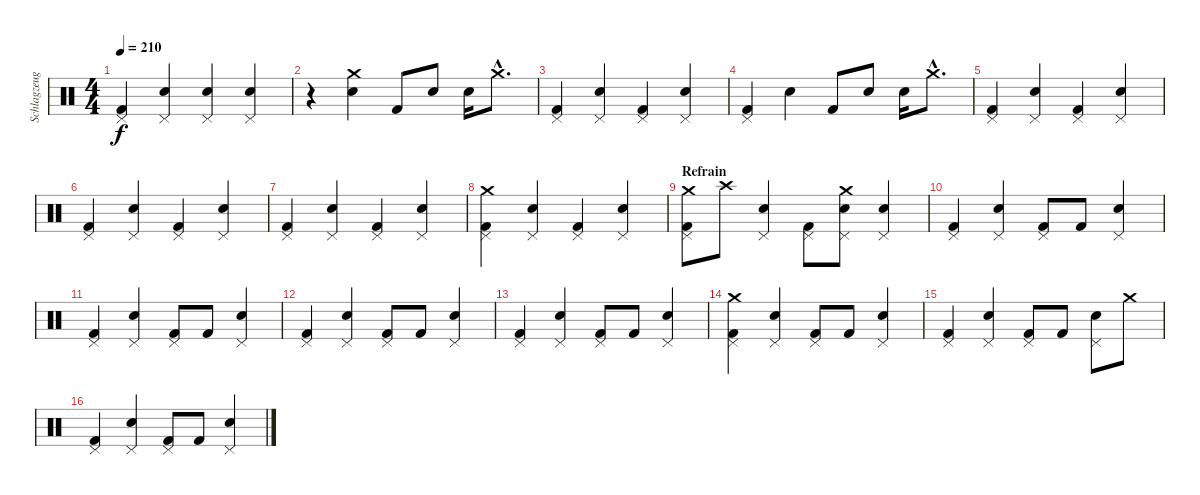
\track ("Schlagzeug" "Schlagzeug") {instrument percussion}
\staff {score}
\articulation defaults
\ts (4 4)
\tempo 210
\clef neutral
\ks c
("Pedal Hi-Hat (hit)" "Kick (hit) 2").4{dy f} ("Pedal Hi-Hat (hit)" "Electric Snare (hit)").4 ("Pedal Hi-Hat (hit)" "Electric Snare (hit)").4 ("Pedal Hi-Hat (hit)" "Electric Snare (hit)").4 |
r.4 ("Crash medium (hit)" "Electric Snare (hit)").4 "Kick (hit) 2".8 "Electric Snare (hit)".8 "Electric Snare (hit)".16 "Crash medium (hit)"{hac}.8{d} |
("Pedal Hi-Hat (hit)" "Kick (hit) 2").4 ("Pedal Hi-Hat (hit)" "Electric Snare (hit)").4 ("Pedal Hi-Hat (hit)" "Kick (hit) 2").4 ("Pedal Hi-Hat (hit)" "Electric Snare (hit)").4 |
("Pedal Hi-Hat (hit)" "Kick (hit) 2").4 "Electric Snare (hit)".4 "Kick (hit) 2".8 "Electric Snare (hit)".8 "Electric Snare (hit)".16 "Crash medium (hit)"{hac}.8{d} |
("Pedal Hi-Hat (hit)" "Kick (hit) 2").4 ("Pedal Hi-Hat (hit)" "Electric Snare (hit)").4 ("Pedal Hi-Hat (hit)" "Kick (hit) 2").4 ("Pedal Hi-Hat (hit)" "Electric Snare (hit)").4 |
("Pedal Hi-Hat (hit)" "Kick (hit) 2").4 ("Pedal Hi-Hat (hit)" "Electric Snare (hit)").4 ("Pedal Hi-Hat (hit)" "Kick (hit) 2").4 ("Pedal Hi-Hat (hit)" "Electric Snare (hit)").4 |
("Pedal Hi-Hat (hit)" "Kick (hit) 2").4 ("Pedal Hi-Hat (hit)" "Electric Snare (hit)").4 ("Pedal Hi-Hat (hit)" "Kick (hit) 2").4 ("Pedal Hi-Hat (hit)" "Electric Snare (hit)").4 |
("Pedal Hi-Hat (hit)" "Kick (hit) 2" "Crash medium (hit)").4 ("Pedal Hi-Hat (hit)" "Electric Snare (hit)").4 ("Pedal Hi-Hat (hit)" "Kick (hit) 2").4 ("Pedal Hi-Hat (hit)" "Electric Snare (hit)").4 |
\section ("" "Refrain")
("Pedal Hi-Hat (hit)" "Kick (hit) 2" "Crash medium (hit)").8 "Crash high (hit)".8 ("Pedal Hi-Hat (hit)" "Electric Snare (hit)").4 ("Pedal Hi-Hat (hit)" "Kick (hit) 2").8 ("Pedal Hi-Hat (hit)" "Electric Snare (hit)" "Crash medium (hit)").8 ("Pedal Hi-Hat (hit)" "Electric Snare (hit)").4 |
("Pedal Hi-Hat (hit)" "Kick (hit) 2").4 ("Pedal Hi-Hat (hit)" "Electric Snare (hit)").4 ("Pedal Hi-Hat (hit)" "Kick (hit) 2").8 "Kick (hit) 2".8 ("Pedal Hi-Hat (hit)" "Electric Snare (hit)").4 |
("Pedal Hi-Hat (hit)" "Kick (hit) 2").4 ("Pedal Hi-Hat (hit)" "Electric Snare (hit)").4 ("Pedal Hi-Hat (hit)" "Kick (hit) 2").8 "Kick (hit) 2".8 ("Pedal Hi-Hat (hit)" "Electric Snare (hit)").4 |
("Pedal Hi-Hat (hit)" "Kick (hit) 2").4 ("Pedal Hi-Hat (hit)" "Electric Snare (hit)").4 ("Pedal Hi-Hat (hit)" "Kick (hit) 2").8 "Kick (hit) 2".8 ("Pedal Hi-Hat (hit)" "Electric Snare (hit)").4 |
("Pedal Hi-Hat (hit)" "Kick (hit) 2").4 ("Pedal Hi-Hat (hit)" "Electric Snare (hit)").4 ("Pedal Hi-Hat (hit)" "Kick (hit) 2").8 "Kick (hit) 2".8 ("Pedal Hi-Hat (hit)" "Electric Snare (hit)").4 |
("Pedal Hi-Hat (hit)" "Kick (hit) 2" "Crash medium (hit)").4 ("Pedal Hi-Hat (hit)" "Electric Snare (hit)").4 ("Pedal Hi-Hat (hit)" "Kick (hit) 2").8 "Kick (hit) 2".8 ("Pedal Hi-Hat (hit)" "Electric Snare (hit)").4 |
("Pedal Hi-Hat (hit)" "Kick (hit) 2").4 ("Pedal Hi-Hat (hit)" "Electric Snare (hit)").4 ("Pedal Hi-Hat (hit)" "Kick (hit) 2").8 "Kick (hit) 2".8 ("Pedal Hi-Hat (hit)" "Electric Snare (hit)").8 "Crash medium (hit)".8 |
("Pedal Hi-Hat (hit)" "Kick (hit) 2").4 ("Pedal Hi-Hat (hit)" "Electric Snare (hit)").4 ("Pedal Hi-Hat (hit)" "Kick (hit) 2").8 "Kick (hit) 2".8 ("Pedal Hi-Hat (hit)" "Electric Snare (hit)").4
